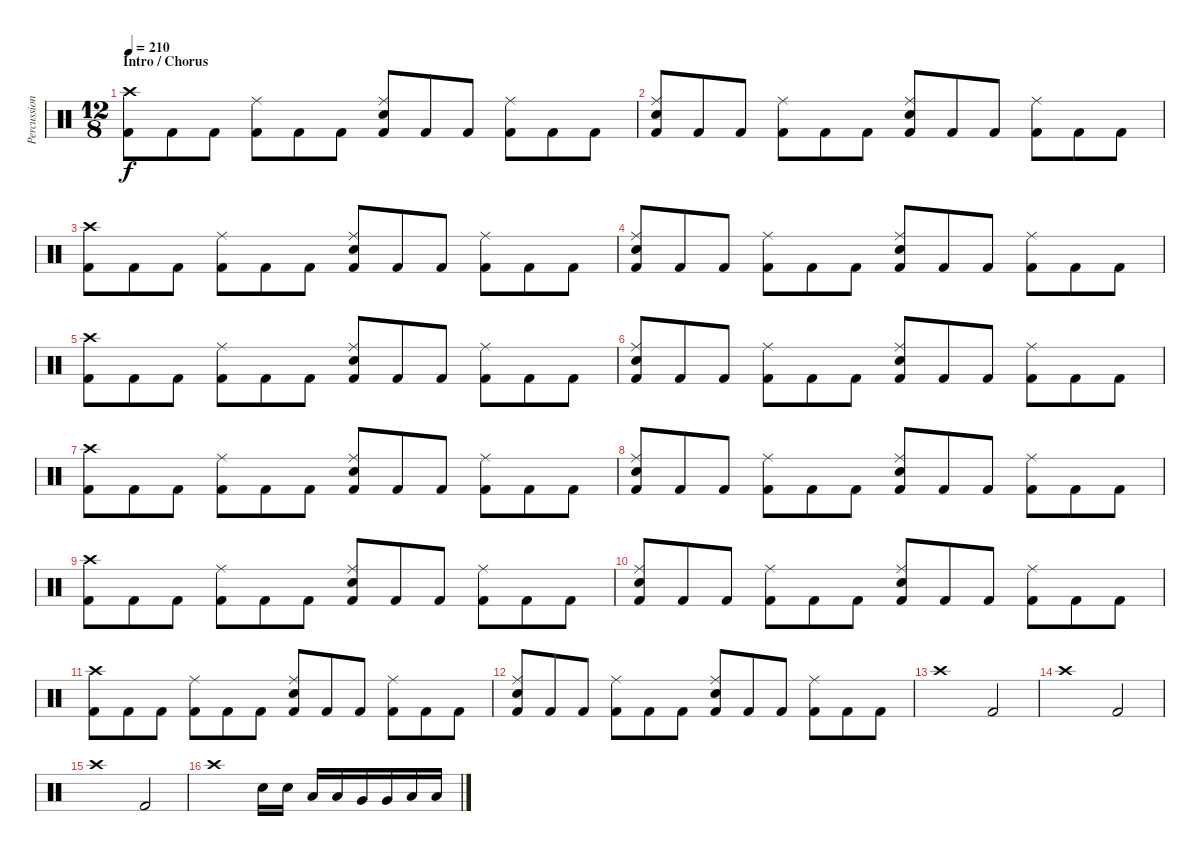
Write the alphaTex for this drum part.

\track ("Percussion" "Percussion") {instrument percussion}
\staff {score}
\articulation defaults
\ts (12 8)
\section ("" "Intro / Chorus")
\tempo 210
\clef neutral
\ks c
("Crash high (hit)" "Kick (hit) 2").8{dy f} "Kick (hit) 2".8 "Kick (hit) 2".8 ("Ride (middle)" "Kick (hit) 2").8 "Kick (hit) 2".8 "Kick (hit) 2".8 ("Ride (middle)" "Snare (hit) 2" "Kick (hit) 2").8 "Kick (hit) 2".8 "Kick (hit) 2".8 ("Ride (middle)" "Kick (hit) 2").8 "Kick (hit) 2".8 "Kick (hit) 2".8 |
("Ride (middle)" "Snare (hit) 2" "Kick (hit) 2").8 "Kick (hit) 2".8 "Kick (hit) 2".8 ("Ride (middle)" "Kick (hit) 2").8 "Kick (hit) 2".8 "Kick (hit) 2".8 ("Ride (middle)" "Snare (hit) 2" "Kick (hit) 2").8 "Kick (hit) 2".8 "Kick (hit) 2".8 ("Ride (middle)" "Kick (hit) 2").8 "Kick (hit) 2".8 "Kick (hit) 2".8 |
("Crash high (hit)" "Kick (hit) 2").8 "Kick (hit) 2".8 "Kick (hit) 2".8 ("Ride (middle)" "Kick (hit) 2").8 "Kick (hit) 2".8 "Kick (hit) 2".8 ("Ride (middle)" "Snare (hit) 2" "Kick (hit) 2").8 "Kick (hit) 2".8 "Kick (hit) 2".8 ("Ride (middle)" "Kick (hit) 2").8 "Kick (hit) 2".8 "Kick (hit) 2".8 |
("Ride (middle)" "Snare (hit) 2" "Kick (hit) 2").8 "Kick (hit) 2".8 "Kick (hit) 2".8 ("Ride (middle)" "Kick (hit) 2").8 "Kick (hit) 2".8 "Kick (hit) 2".8 ("Ride (middle)" "Snare (hit) 2" "Kick (hit) 2").8 "Kick (hit) 2".8 "Kick (hit) 2".8 ("Ride (middle)" "Kick (hit) 2").8 "Kick (hit) 2".8 "Kick (hit) 2".8 |
("Crash high (hit)" "Kick (hit) 2").8 "Kick (hit) 2".8 "Kick (hit) 2".8 ("Ride (middle)" "Kick (hit) 2").8 "Kick (hit) 2".8 "Kick (hit) 2".8 ("Ride (middle)" "Snare (hit) 2" "Kick (hit) 2").8 "Kick (hit) 2".8 "Kick (hit) 2".8 ("Ride (middle)" "Kick (hit) 2").8 "Kick (hit) 2".8 "Kick (hit) 2".8 |
("Ride (middle)" "Snare (hit) 2" "Kick (hit) 2").8 "Kick (hit) 2".8 "Kick (hit) 2".8 ("Ride (middle)" "Kick (hit) 2").8 "Kick (hit) 2".8 "Kick (hit) 2".8 ("Ride (middle)" "Snare (hit) 2" "Kick (hit) 2").8 "Kick (hit) 2".8 "Kick (hit) 2".8 ("Ride (middle)" "Kick (hit) 2").8 "Kick (hit) 2".8 "Kick (hit) 2".8 |
("Crash high (hit)" "Kick (hit) 2").8 "Kick (hit) 2".8 "Kick (hit) 2".8 ("Ride (middle)" "Kick (hit) 2").8 "Kick (hit) 2".8 "Kick (hit) 2".8 ("Ride (middle)" "Snare (hit) 2" "Kick (hit) 2").8 "Kick (hit) 2".8 "Kick (hit) 2".8 ("Ride (middle)" "Kick (hit) 2").8 "Kick (hit) 2".8 "Kick (hit) 2".8 |
("Ride (middle)" "Snare (hit) 2" "Kick (hit) 2").8 "Kick (hit) 2".8 "Kick (hit) 2".8 ("Ride (middle)" "Kick (hit) 2").8 "Kick (hit) 2".8 "Kick (hit) 2".8 ("Ride (middle)" "Snare (hit) 2" "Kick (hit) 2").8 "Kick (hit) 2".8 "Kick (hit) 2".8 ("Ride (middle)" "Kick (hit) 2").8 "Kick (hit) 2".8 "Kick (hit) 2".8 |
("Crash high (hit)" "Kick (hit) 2").8 "Kick (hit) 2".8 "Kick (hit) 2".8 ("Ride (middle)" "Kick (hit) 2").8 "Kick (hit) 2".8 "Kick (hit) 2".8 ("Ride (middle)" "Snare (hit) 2" "Kick (hit) 2").8 "Kick (hit) 2".8 "Kick (hit) 2".8 ("Ride (middle)" "Kick (hit) 2").8 "Kick (hit) 2".8 "Kick (hit) 2".8 |
("Ride (middle)" "Snare (hit) 2" "Kick (hit) 2").8 "Kick (hit) 2".8 "Kick (hit) 2".8 ("Ride (middle)" "Kick (hit) 2").8 "Kick (hit) 2".8 "Kick (hit) 2".8 ("Ride (middle)" "Snare (hit) 2" "Kick (hit) 2").8 "Kick (hit) 2".8 "Kick (hit) 2".8 ("Ride (middle)" "Kick (hit) 2").8 "Kick (hit) 2".8 "Kick (hit) 2".8 |
("Crash high (hit)" "Kick (hit) 2").8 "Kick (hit) 2".8 "Kick (hit) 2".8 ("Ride (middle)" "Kick (hit) 2").8 "Kick (hit) 2".8 "Kick (hit) 2".8 ("Ride (middle)" "Snare (hit) 2" "Kick (hit) 2").8 "Kick (hit) 2".8 "Kick (hit) 2".8 ("Ride (middle)" "Kick (hit) 2").8 "Kick (hit) 2".8 "Kick (hit) 2".8 |
("Ride (middle)" "Snare (hit) 2" "Kick (hit) 2").8 "Kick (hit) 2".8 "Kick (hit) 2".8 ("Ride (middle)" "Kick (hit) 2").8 "Kick (hit) 2".8 "Kick (hit) 2".8 ("Ride (middle)" "Snare (hit) 2" "Kick (hit) 2").8 "Kick (hit) 2".8 "Kick (hit) 2".8 ("Ride (middle)" "Kick (hit) 2").8 "Kick (hit) 2".8 "Kick (hit) 2".8 |
"Crash high (hit)".1 "Kick (hit) 2".2 |
"Crash high (hit)".1 "Kick (hit) 2".2 |
"Crash high (hit)".1 "Kick (hit) 2".2 |
"Crash high (hit)".1 "Snare (hit) 2".16 "Snare (hit) 2".16 "Low Tom (hit)".16 "Low Tom (hit)".16 "Very Low Tom (hit)".16 "Very Low Tom (hit)".16 "Low Floor Tom (hit)".16 "Low Floor Tom (hit)".16
